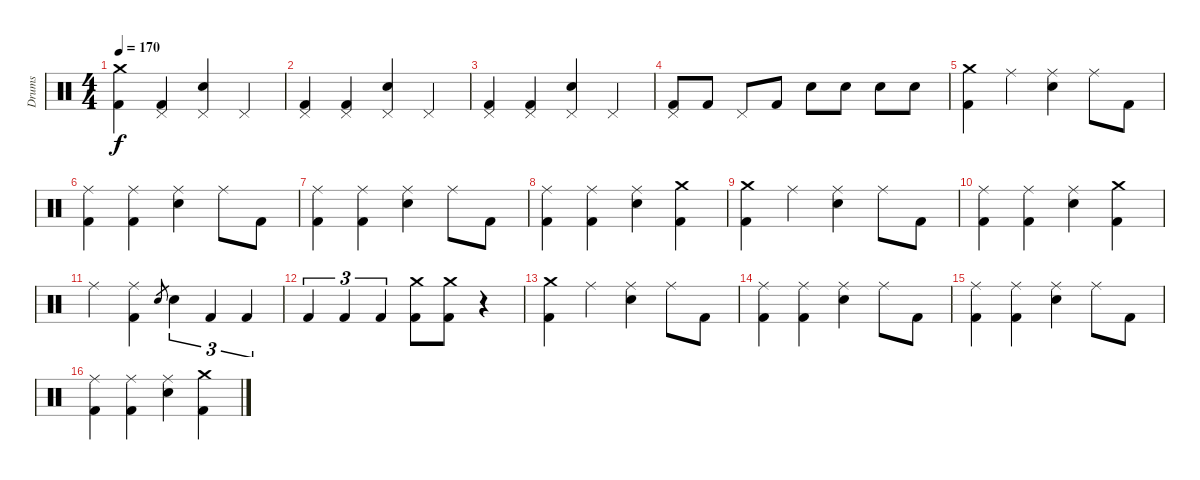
\track ("Drums" "Drums") {instrument percussion}
\staff {score}
\articulation defaults
\ts (4 4)
\tempo 170
\clef neutral
\ks c
("Crash medium (hit)" "Kick (hit) 2").4{dy f} ("Pedal Hi-Hat (hit)" "Kick (hit) 2").4 ("Pedal Hi-Hat (hit)" "Electric Snare (hit)").4 "Pedal Hi-Hat (hit)".4 |
("Pedal Hi-Hat (hit)" "Kick (hit) 2").4 ("Pedal Hi-Hat (hit)" "Kick (hit) 2").4 ("Pedal Hi-Hat (hit)" "Electric Snare (hit)").4 "Pedal Hi-Hat (hit)".4 |
("Pedal Hi-Hat (hit)" "Kick (hit) 2").4 ("Pedal Hi-Hat (hit)" "Kick (hit) 2").4 ("Pedal Hi-Hat (hit)" "Electric Snare (hit)").4 "Pedal Hi-Hat (hit)".4 |
("Pedal Hi-Hat (hit)" "Kick (hit) 2").8 "Kick (hit) 2".8 "Pedal Hi-Hat (hit)".8 "Kick (hit) 2".8 "Electric Snare (hit)".8 "Electric Snare (hit)".8 "Electric Snare (hit)".8 "Electric Snare (hit)".8 |
("Crash medium (hit)" "Kick (hit) 2").4 "Ride (middle)".4 ("Ride (middle)" "Electric Snare (hit)").4 "Ride (middle)".8 "Kick (hit) 2".8 |
("Ride (middle)" "Kick (hit) 2").4 ("Ride (middle)" "Kick (hit) 2").4 ("Ride (middle)" "Electric Snare (hit)").4 "Ride (middle)".8 "Kick (hit) 2".8 |
("Ride (middle)" "Kick (hit) 2").4 ("Ride (middle)" "Kick (hit) 2").4 ("Ride (middle)" "Electric Snare (hit)").4 "Ride (middle)".8 "Kick (hit) 2".8 |
("Ride (middle)" "Kick (hit) 2").4 ("Ride (middle)" "Kick (hit) 2").4 ("Ride (middle)" "Electric Snare (hit)").4 ("Crash medium (hit)" "Kick (hit) 2").4 |
("Crash medium (hit)" "Kick (hit) 2").4 "Ride (middle)".4 ("Ride (middle)" "Electric Snare (hit)").4 "Ride (middle)".8 "Kick (hit) 2".8 |
("Ride (middle)" "Kick (hit) 2").4 ("Ride (middle)" "Kick (hit) 2").4 ("Ride (middle)" "Electric Snare (hit)").4 ("Crash medium (hit)" "Kick (hit) 2").4 |
"Ride (middle)".4 ("Ride (middle)" "Kick (hit) 2").4 "Electric Snare (hit)".8{gr} "Electric Snare (hit)".4{tu (3 2)} "Kick (hit) 2".4{tu (3 2)} "Kick (hit) 2".4{tu (3 2)} |
"Kick (hit) 2".4{tu (3 2)} "Kick (hit) 2".4{tu (3 2)} "Kick (hit) 2".4{tu (3 2)} ("Crash medium (hit)" "Kick (hit) 2").8 ("Crash medium (hit)" "Kick (hit) 2").8 r.4 |
("Crash medium (hit)" "Kick (hit) 2").4 "Ride (middle)".4 ("Ride (middle)" "Electric Snare (hit)").4 "Ride (middle)".8 "Kick (hit) 2".8 |
("Ride (middle)" "Kick (hit) 2").4 ("Ride (middle)" "Kick (hit) 2").4 ("Ride (middle)" "Electric Snare (hit)").4 "Ride (middle)".8 "Kick (hit) 2".8 |
("Ride (middle)" "Kick (hit) 2").4 ("Ride (middle)" "Kick (hit) 2").4 ("Ride (middle)" "Electric Snare (hit)").4 "Ride (middle)".8 "Kick (hit) 2".8 |
("Ride (middle)" "Kick (hit) 2").4 ("Ride (middle)" "Kick (hit) 2").4 ("Ride (middle)" "Electric Snare (hit)").4 ("Crash medium (hit)" "Kick (hit) 2").4
